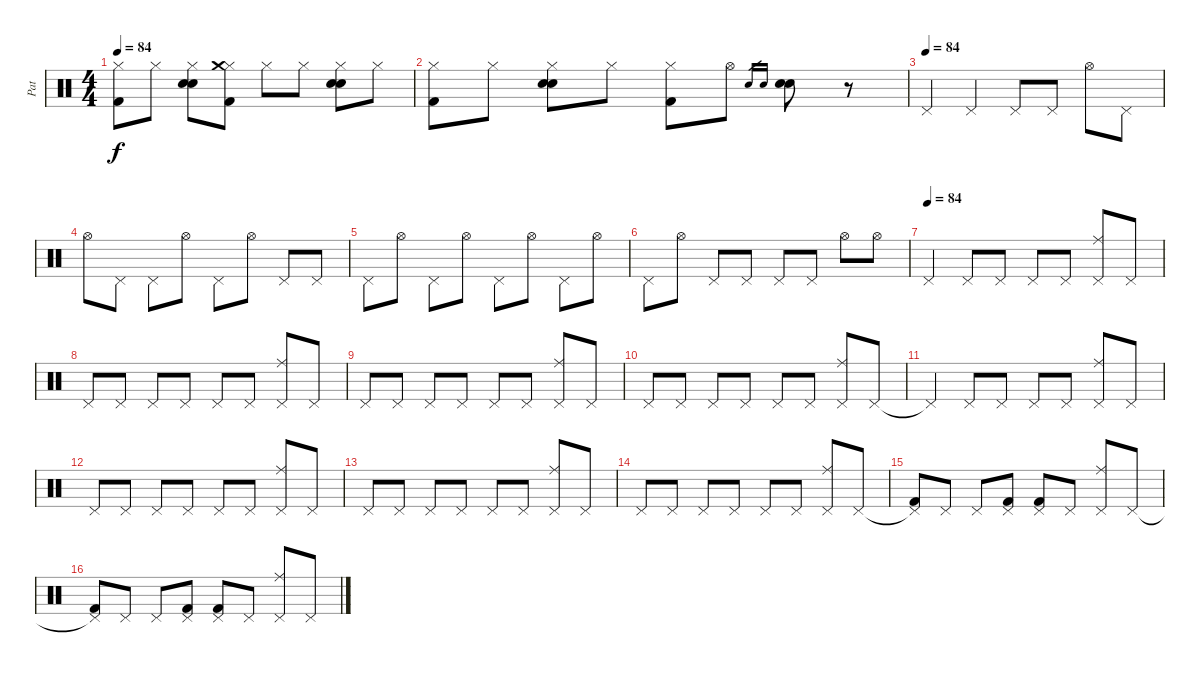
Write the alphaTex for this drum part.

\track ("Pat" "Pat") {instrument percussion}
\staff {score}
\articulation defaults
\ts (4 4)
\tempo 84
\clef neutral
\ks c
("Hi-Hat (closed)" "Kick (hit) 2").8{dy f} "Hi-Hat (closed)".8 ("Hi-Hat (closed)" "Electric Snare (hit)" "Snare (hit) 2").8 ("Hi-Hat (closed)" "Crash medium (hit)" "Kick (hit) 2").8 "Hi-Hat (closed)".8 "Hi-Hat (closed)".8 ("Hi-Hat (closed)" "Electric Snare (hit)" "Snare (hit) 2").8 "Hi-Hat (closed)".8 |
("Hi-Hat (closed)" "Kick (hit) 2").8 "Hi-Hat (closed)".8 ("Hi-Hat (closed)" "Electric Snare (hit)" "Snare (hit) 2").8 "Hi-Hat (closed)".8 ("Hi-Hat (closed)" "Kick (hit) 2").8 "Hi-Hat (open)".8 "Electric Snare (hit)".16{gr} "Snare (hit) 2".16{gr} ("Electric Snare (hit)" "Snare (hit) 2").8 r.8 |
\tempo (84)
"Pedal Hi-Hat (hit)".4 "Pedal Hi-Hat (hit)".4 "Pedal Hi-Hat (hit)".8 "Pedal Hi-Hat (hit)".8 "Hi-Hat (open)".8 "Pedal Hi-Hat (hit)".8 |
"Hi-Hat (open)".8 "Pedal Hi-Hat (hit)".8 "Pedal Hi-Hat (hit)".8 "Hi-Hat (open)".8 "Pedal Hi-Hat (hit)".8 "Hi-Hat (open)".8 "Pedal Hi-Hat (hit)".8 "Pedal Hi-Hat (hit)".8 |
"Pedal Hi-Hat (hit)".8 "Hi-Hat (open)".8 "Pedal Hi-Hat (hit)".8 "Hi-Hat (open)".8 "Pedal Hi-Hat (hit)".8 "Hi-Hat (open)".8 "Pedal Hi-Hat (hit)".8 "Hi-Hat (open)".8 |
"Pedal Hi-Hat (hit)".8 "Hi-Hat (open)".8 "Pedal Hi-Hat (hit)".8 "Pedal Hi-Hat (hit)".8 "Pedal Hi-Hat (hit)".8 "Pedal Hi-Hat (hit)".8 "Hi-Hat (open)".8 "Hi-Hat (open)".8 |
\tempo (84)
"Pedal Hi-Hat (hit)".4 "Pedal Hi-Hat (hit)".8 "Pedal Hi-Hat (hit)".8 "Pedal Hi-Hat (hit)".8 "Pedal Hi-Hat (hit)".8 ("Pedal Hi-Hat (hit)" "Ride (middle)").8 "Pedal Hi-Hat (hit)".8 |
"Pedal Hi-Hat (hit)".8 "Pedal Hi-Hat (hit)".8 "Pedal Hi-Hat (hit)".8 "Pedal Hi-Hat (hit)".8 "Pedal Hi-Hat (hit)".8 "Pedal Hi-Hat (hit)".8 ("Pedal Hi-Hat (hit)" "Ride (middle)").8 "Pedal Hi-Hat (hit)".8 |
"Pedal Hi-Hat (hit)".8 "Pedal Hi-Hat (hit)".8 "Pedal Hi-Hat (hit)".8 "Pedal Hi-Hat (hit)".8 "Pedal Hi-Hat (hit)".8 "Pedal Hi-Hat (hit)".8 ("Pedal Hi-Hat (hit)" "Ride (middle)").8 "Pedal Hi-Hat (hit)".8 |
"Pedal Hi-Hat (hit)".8 "Pedal Hi-Hat (hit)".8 "Pedal Hi-Hat (hit)".8 "Pedal Hi-Hat (hit)".8 "Pedal Hi-Hat (hit)".8 "Pedal Hi-Hat (hit)".8 ("Pedal Hi-Hat (hit)" "Ride (middle)").8 "Pedal Hi-Hat (hit)".8 |
"Pedal Hi-Hat (hit)"{t}.4 "Pedal Hi-Hat (hit)".8 "Pedal Hi-Hat (hit)".8 "Pedal Hi-Hat (hit)".8 "Pedal Hi-Hat (hit)".8 ("Pedal Hi-Hat (hit)" "Ride (middle)").8 "Pedal Hi-Hat (hit)".8 |
"Pedal Hi-Hat (hit)".8 "Pedal Hi-Hat (hit)".8 "Pedal Hi-Hat (hit)".8 "Pedal Hi-Hat (hit)".8 "Pedal Hi-Hat (hit)".8 "Pedal Hi-Hat (hit)".8 ("Pedal Hi-Hat (hit)" "Ride (middle)").8 "Pedal Hi-Hat (hit)".8 |
"Pedal Hi-Hat (hit)".8 "Pedal Hi-Hat (hit)".8 "Pedal Hi-Hat (hit)".8 "Pedal Hi-Hat (hit)".8 "Pedal Hi-Hat (hit)".8 "Pedal Hi-Hat (hit)".8 ("Pedal Hi-Hat (hit)" "Ride (middle)").8 "Pedal Hi-Hat (hit)".8 |
"Pedal Hi-Hat (hit)".8 "Pedal Hi-Hat (hit)".8 "Pedal Hi-Hat (hit)".8 "Pedal Hi-Hat (hit)".8 "Pedal Hi-Hat (hit)".8 "Pedal Hi-Hat (hit)".8 ("Pedal Hi-Hat (hit)" "Ride (middle)").8 "Pedal Hi-Hat (hit)".8 |
("Pedal Hi-Hat (hit)"{t} "Kick (hit) 2").8 "Pedal Hi-Hat (hit)".8 "Pedal Hi-Hat (hit)".8 ("Pedal Hi-Hat (hit)" "Kick (hit) 2").8 ("Pedal Hi-Hat (hit)" "Kick (hit) 2").8 "Pedal Hi-Hat (hit)".8 ("Pedal Hi-Hat (hit)" "Ride (middle)").8 "Pedal Hi-Hat (hit)".8 |
("Pedal Hi-Hat (hit)"{t} "Kick (hit) 2").8 "Pedal Hi-Hat (hit)".8 "Pedal Hi-Hat (hit)".8 ("Pedal Hi-Hat (hit)" "Kick (hit) 2").8 ("Pedal Hi-Hat (hit)" "Kick (hit) 2").8 "Pedal Hi-Hat (hit)".8 ("Pedal Hi-Hat (hit)" "Ride (middle)").8 "Pedal Hi-Hat (hit)".8
